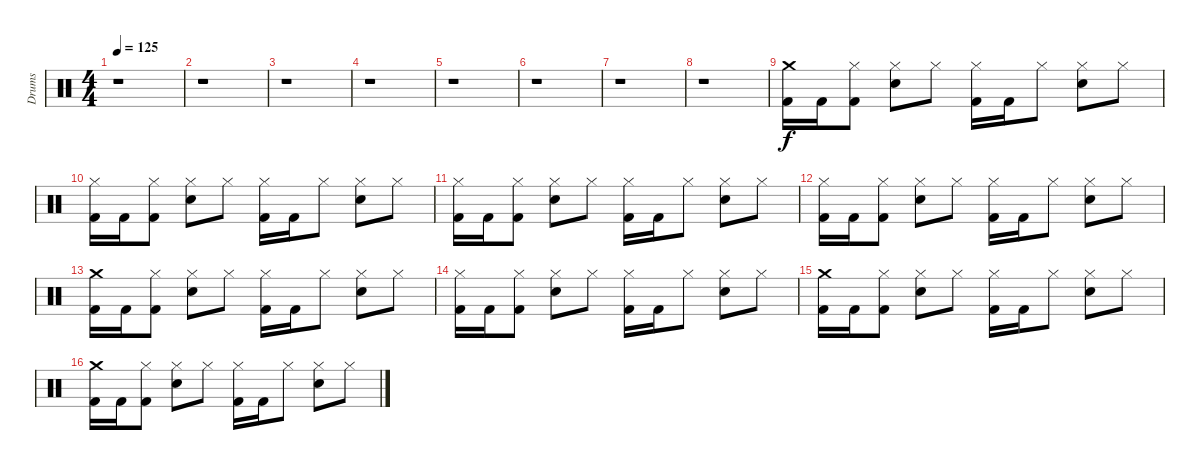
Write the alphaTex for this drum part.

\track ("Drums" "Drums") {instrument percussion}
\staff {score}
\articulation defaults
\ts (4 4)
\tempo 125
\clef neutral
\ks c
r.1{dy f} |
r.1 |
r.1 |
r.1 |
r.1 |
r.1 |
r.1 |
r.1 |
("Crash medium (hit)" "Kick (hit) 2").16 "Kick (hit) 2".16 ("Hi-Hat (closed)" "Kick (hit) 2").8 ("Hi-Hat (closed)" "Electric Snare (hit)").8 "Hi-Hat (closed)".8 ("Hi-Hat (closed)" "Kick (hit) 2").16 "Kick (hit) 2".16 "Hi-Hat (closed)".8 ("Hi-Hat (closed)" "Electric Snare (hit)").8 "Hi-Hat (closed)".8 |
("Hi-Hat (closed)" "Kick (hit) 2").16 "Kick (hit) 2".16 ("Hi-Hat (closed)" "Kick (hit) 2").8 ("Hi-Hat (closed)" "Electric Snare (hit)").8 "Hi-Hat (closed)".8 ("Hi-Hat (closed)" "Kick (hit) 2").16 "Kick (hit) 2".16 "Hi-Hat (closed)".8 ("Hi-Hat (closed)" "Electric Snare (hit)").8 "Hi-Hat (closed)".8 |
("Hi-Hat (closed)" "Kick (hit) 2").16 "Kick (hit) 2".16 ("Hi-Hat (closed)" "Kick (hit) 2").8 ("Hi-Hat (closed)" "Electric Snare (hit)").8 "Hi-Hat (closed)".8 ("Hi-Hat (closed)" "Kick (hit) 2").16 "Kick (hit) 2".16 "Hi-Hat (closed)".8 ("Hi-Hat (closed)" "Electric Snare (hit)").8 "Hi-Hat (closed)".8 |
("Hi-Hat (closed)" "Kick (hit) 2").16 "Kick (hit) 2".16 ("Hi-Hat (closed)" "Kick (hit) 2").8 ("Hi-Hat (closed)" "Electric Snare (hit)").8 "Hi-Hat (closed)".8 ("Hi-Hat (closed)" "Kick (hit) 2").16 "Kick (hit) 2".16 "Hi-Hat (closed)".8 ("Hi-Hat (closed)" "Electric Snare (hit)").8 "Hi-Hat (closed)".8 |
("Crash medium (hit)" "Kick (hit) 2").16 "Kick (hit) 2".16 ("Hi-Hat (closed)" "Kick (hit) 2").8 ("Hi-Hat (closed)" "Electric Snare (hit)").8 "Hi-Hat (closed)".8 ("Hi-Hat (closed)" "Kick (hit) 2").16 "Kick (hit) 2".16 "Hi-Hat (closed)".8 ("Hi-Hat (closed)" "Electric Snare (hit)").8 "Hi-Hat (closed)".8 |
("Hi-Hat (closed)" "Kick (hit) 2").16 "Kick (hit) 2".16 ("Hi-Hat (closed)" "Kick (hit) 2").8 ("Hi-Hat (closed)" "Electric Snare (hit)").8 "Hi-Hat (closed)".8 ("Hi-Hat (closed)" "Kick (hit) 2").16 "Kick (hit) 2".16 "Hi-Hat (closed)".8 ("Hi-Hat (closed)" "Electric Snare (hit)").8 "Hi-Hat (closed)".8 |
("Crash medium (hit)" "Kick (hit) 2").16 "Kick (hit) 2".16 ("Hi-Hat (closed)" "Kick (hit) 2").8 ("Hi-Hat (closed)" "Electric Snare (hit)").8 "Hi-Hat (closed)".8 ("Hi-Hat (closed)" "Kick (hit) 2").16 "Kick (hit) 2".16 "Hi-Hat (closed)".8 ("Hi-Hat (closed)" "Electric Snare (hit)").8 "Hi-Hat (closed)".8 |
("Crash medium (hit)" "Kick (hit) 2").16 "Kick (hit) 2".16 ("Hi-Hat (closed)" "Kick (hit) 2").8 ("Hi-Hat (closed)" "Electric Snare (hit)").8 "Hi-Hat (closed)".8 ("Hi-Hat (closed)" "Kick (hit) 2").16 "Kick (hit) 2".16 "Hi-Hat (closed)".8 ("Hi-Hat (closed)" "Electric Snare (hit)").8 "Hi-Hat (closed)".8
